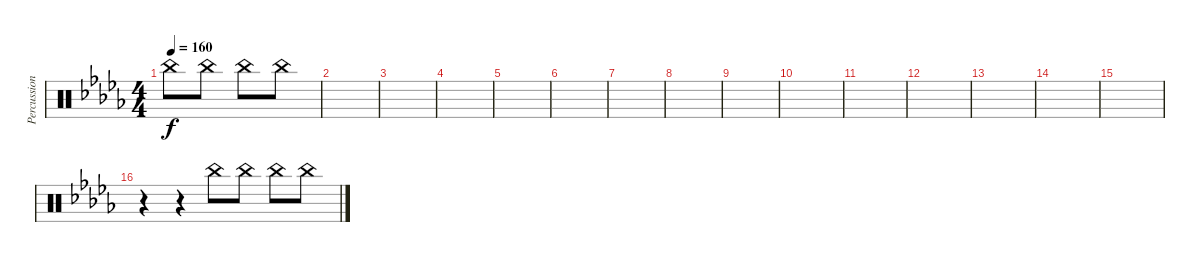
\track ("Percussions" "Percussion") {instrument percussion}
\staff {score}
\articulation defaults
\ts (4 4)
\tempo 160
\clef neutral
\ks db "China (hit)".8{dy f} "China (hit)".8 "China (hit)".8 "China (hit)".8
|
|
|
|
|
|
|
|
|
|
|
|
|
|
|
r.4 r.4 "China (hit)".8 "China (hit)".8 "China (hit)".8 "China (hit)".8
